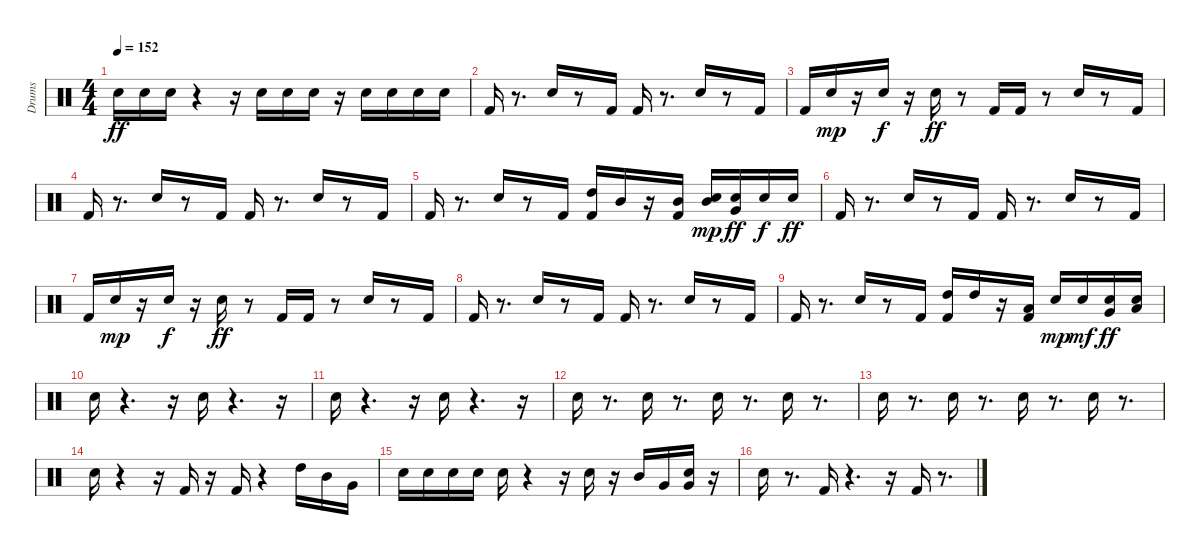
\track ("Drums               " "Drums     ") {instrument percussion}
\staff {score}
\articulation defaults
\ts (4 4)
\tempo 152
\clef neutral
\ks c "Snare (hit) 2".16{dy ff} "Snare (hit) 2".16 "Snare (hit) 2".16
r.4 r.16 "Snare (hit) 2".16 "Snare (hit) 2".16 "Snare (hit) 2".16 r.16 "Snare (hit) 2".16 "Snare (hit) 2".16 "Snare (hit) 2".16 "Snare (hit) 2".16 |
"Kick (hit) 2".16 r.8{d} "Snare (hit) 2".16 r.8 "Kick (hit) 2".16 "Kick (hit) 2".16 r.8{d} "Snare (hit) 2".16 r.8 "Kick (hit) 2".16 |
"Kick (hit) 2".16 "Snare (hit) 2".16{dy mp} r.16 "Snare (hit) 2".16{dy f} r.16 "Snare (hit) 2".16{dy ff} r.8 "Kick (hit) 2".16 "Kick (hit) 2".16 r.8 "Snare (hit) 2".16 r.8 "Kick (hit) 2".16 |
"Kick (hit) 2".16 r.8{d} "Snare (hit) 2".16 r.8 "Kick (hit) 2".16 "Kick (hit) 2".16 r.8{d} "Snare (hit) 2".16 r.8 "Kick (hit) 2".16 |
"Kick (hit) 2".16 r.8{d} "Snare (hit) 2".16 r.8 "Kick (hit) 2".16 ("High Tom (hit)" "Kick (hit) 2").16 "Mid Tom (hit)".16 r.16 ("Mid Tom (hit)" "Kick (hit) 2").16 ("Mid Tom (hit)" "Snare (hit) 2").16{dy mp} ("Snare (hit) 2" "Very Low Tom (hit)").16{dy ff} "Snare (hit) 2".16{dy f} "Snare (hit) 2".16{dy ff} |
"Kick (hit) 2".16 r.8{d} "Snare (hit) 2".16 r.8 "Kick (hit) 2".16 "Kick (hit) 2".16 r.8{d} "Snare (hit) 2".16 r.8 "Kick (hit) 2".16 |
"Kick (hit) 2".16 "Snare (hit) 2".16{dy mp} r.16 "Snare (hit) 2".16{dy f} r.16 "Snare (hit) 2".16{dy ff} r.8 "Kick (hit) 2".16 "Kick (hit) 2".16 r.8 "Snare (hit) 2".16 r.8 "Kick (hit) 2".16 |
"Kick (hit) 2".16 r.8{d} "Snare (hit) 2".16 r.8 "Kick (hit) 2".16 "Kick (hit) 2".16 r.8{d} "Snare (hit) 2".16 r.8 "Kick (hit) 2".16 |
"Kick (hit) 2".16 r.8{d} "Snare (hit) 2".16 r.8 "Kick (hit) 2".16 ("Kick (hit) 2" "High Tom (hit)").16 "High Tom (hit)".16 r.16 ("Kick (hit) 2" "Low Tom (hit)").16 "Snare (hit) 2".16{dy mp} "Snare (hit) 2".16{dy mf} ("Very Low Tom (hit)" "Snare (hit) 2").16{dy ff} ("Snare (hit) 2" "Low Floor Tom (hit)").16 |
"Snare (hit) 2".16 r.4{d} r.16 "Snare (hit) 2".16 r.4{d} r.16 |
"Snare (hit) 2".16 r.4{d} r.16 "Snare (hit) 2".16 r.4{d} r.16 |
"Snare (hit) 2".16 r.8{d} "Snare (hit) 2".16 r.8{d} "Snare (hit) 2".16 r.8{d} "Snare (hit) 2".16 r.8{d} |
"Snare (hit) 2".16 r.8{d} "Snare (hit) 2".16 r.8{d} "Snare (hit) 2".16 r.8{d} "Snare (hit) 2".16 r.8{d} |
"Snare (hit) 2".16 r.4 r.16 "Kick (hit) 2".16 r.16 "Kick (hit) 2".16 r.4 "High Tom (hit)".16 "Mid Tom (hit)".16 "Very Low Tom (hit)".16 |
"Snare (hit) 2".16 "Snare (hit) 2".16 "Snare (hit) 2".16 "Snare (hit) 2".16 "Snare (hit) 2".16 r.4 r.16 "Snare (hit) 2".16 r.16 "Mid Tom (hit)".16 "Very Low Tom (hit)".16 ("Very Low Tom (hit)" "Snare (hit) 2").16 r.16 |
"Snare (hit) 2".16 r.8{d} "Kick (hit) 2".16 r.4{d} r.16 "Kick (hit) 2".16 r.8{d}
